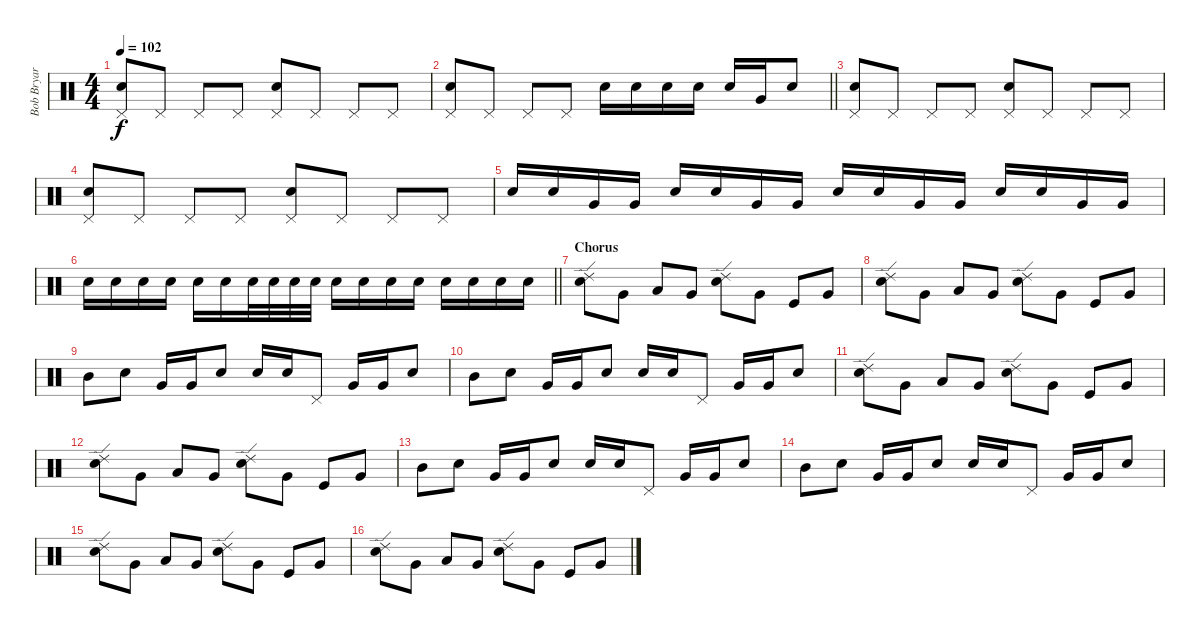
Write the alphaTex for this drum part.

\track ("Bob Bryar" "Bob Bryar") {instrument percussion}
\staff {score}
\articulation defaults
\ts (4 4)
\tempo 102
\clef neutral
\ks c
("Pedal Hi-Hat (hit)" "Electric Snare (hit)").8{dy f} "Pedal Hi-Hat (hit)".8 "Pedal Hi-Hat (hit)".8 "Pedal Hi-Hat (hit)".8 ("Pedal Hi-Hat (hit)" "Electric Snare (hit)").8 "Pedal Hi-Hat (hit)".8 "Pedal Hi-Hat (hit)".8 "Pedal Hi-Hat (hit)".8 |
\barLineRight lightlight
("Pedal Hi-Hat (hit)" "Electric Snare (hit)").8 "Pedal Hi-Hat (hit)".8 "Pedal Hi-Hat (hit)".8 "Pedal Hi-Hat (hit)".8 "Electric Snare (hit)".16 "Electric Snare (hit)".16 "Electric Snare (hit)".16 "Electric Snare (hit)".16 "Electric Snare (hit)".16 "Very Low Tom (hit)".16 "Electric Snare (hit)".8 |
("Pedal Hi-Hat (hit)" "Electric Snare (hit)").8 "Pedal Hi-Hat (hit)".8 "Pedal Hi-Hat (hit)".8 "Pedal Hi-Hat (hit)".8 ("Pedal Hi-Hat (hit)" "Electric Snare (hit)").8 "Pedal Hi-Hat (hit)".8 "Pedal Hi-Hat (hit)".8 "Pedal Hi-Hat (hit)".8 |
("Pedal Hi-Hat (hit)" "Electric Snare (hit)").8 "Pedal Hi-Hat (hit)".8 "Pedal Hi-Hat (hit)".8 "Pedal Hi-Hat (hit)".8 ("Pedal Hi-Hat (hit)" "Electric Snare (hit)").8 "Pedal Hi-Hat (hit)".8 "Pedal Hi-Hat (hit)".8 "Pedal Hi-Hat (hit)".8 |
"Electric Snare (hit)".16 "Electric Snare (hit)".16 "Very Low Tom (hit)".16 "Very Low Tom (hit)".16 "Electric Snare (hit)".16 "Electric Snare (hit)".16 "Very Low Tom (hit)".16 "Very Low Tom (hit)".16 "Electric Snare (hit)".16 "Electric Snare (hit)".16 "Very Low Tom (hit)".16 "Very Low Tom (hit)".16 "Electric Snare (hit)".16 "Electric Snare (hit)".16 "Very Low Tom (hit)".16 "Very Low Tom (hit)".16 |
\barLineRight lightlight "Electric Snare (hit)".16 "Electric Snare (hit)".16 "Electric Snare (hit)".16 "Electric Snare (hit)".16 "Electric Snare (hit)".16 "Electric Snare (hit)".16 "Electric Snare (hit)".32 "Electric Snare (hit)".32 "Electric Snare (hit)".32 "Electric Snare (hit)".32 "Electric Snare (hit)".16 "Electric Snare (hit)".16 "Electric Snare (hit)".16 "Electric Snare (hit)".16 "Electric Snare (hit)".16 "Electric Snare (hit)".16 "Electric Snare (hit)".16 "Electric Snare (hit)".16
|
\section ("" "Chorus")
("Ride (edge) 2" "Electric Snare (hit)").8 "Very Low Tom (hit)".8 "Low Tom (hit)".8 "Very Low Tom (hit)".8 ("Ride (edge) 2" "Electric Snare (hit)").8 "Very Low Tom (hit)".8 "Kick (hit)".8 "Very Low Tom (hit)".8 |
("Ride (edge) 2" "Electric Snare (hit)").8 "Very Low Tom (hit)".8 "Low Tom (hit)".8 "Very Low Tom (hit)".8 ("Ride (edge) 2" "Electric Snare (hit)").8 "Very Low Tom (hit)".8 "Kick (hit)".8 "Very Low Tom (hit)".8 |
"Mid Tom (hit)".8 "Electric Snare (hit)".8 "Very Low Tom (hit)".16 "Very Low Tom (hit)".16 "Electric Snare (hit)".8 "Electric Snare (hit)".16 "Electric Snare (hit)".16 "Pedal Hi-Hat (hit)".8 "Very Low Tom (hit)".16 "Very Low Tom (hit)".16 "Electric Snare (hit)".8 |
"Mid Tom (hit)".8 "Electric Snare (hit)".8 "Very Low Tom (hit)".16 "Very Low Tom (hit)".16 "Electric Snare (hit)".8 "Electric Snare (hit)".16 "Electric Snare (hit)".16 "Pedal Hi-Hat (hit)".8 "Very Low Tom (hit)".16 "Very Low Tom (hit)".16 "Electric Snare (hit)".8 |
("Ride (edge) 2" "Electric Snare (hit)").8 "Very Low Tom (hit)".8 "Low Tom (hit)".8 "Very Low Tom (hit)".8 ("Ride (edge) 2" "Electric Snare (hit)").8 "Very Low Tom (hit)".8 "Kick (hit)".8 "Very Low Tom (hit)".8 |
("Ride (edge) 2" "Electric Snare (hit)").8 "Very Low Tom (hit)".8 "Low Tom (hit)".8 "Very Low Tom (hit)".8 ("Ride (edge) 2" "Electric Snare (hit)").8 "Very Low Tom (hit)".8 "Kick (hit)".8 "Very Low Tom (hit)".8 |
"Mid Tom (hit)".8 "Electric Snare (hit)".8 "Very Low Tom (hit)".16 "Very Low Tom (hit)".16 "Electric Snare (hit)".8 "Electric Snare (hit)".16 "Electric Snare (hit)".16 "Pedal Hi-Hat (hit)".8 "Very Low Tom (hit)".16 "Very Low Tom (hit)".16 "Electric Snare (hit)".8 |
"Mid Tom (hit)".8 "Electric Snare (hit)".8 "Very Low Tom (hit)".16 "Very Low Tom (hit)".16 "Electric Snare (hit)".8 "Electric Snare (hit)".16 "Electric Snare (hit)".16 "Pedal Hi-Hat (hit)".8 "Very Low Tom (hit)".16 "Very Low Tom (hit)".16 "Electric Snare (hit)".8 |
("Ride (edge) 2" "Electric Snare (hit)").8 "Very Low Tom (hit)".8 "Low Tom (hit)".8 "Very Low Tom (hit)".8 ("Ride (edge) 2" "Electric Snare (hit)").8 "Very Low Tom (hit)".8 "Kick (hit)".8 "Very Low Tom (hit)".8 |
("Ride (edge) 2" "Electric Snare (hit)").8 "Very Low Tom (hit)".8 "Low Tom (hit)".8 "Very Low Tom (hit)".8 ("Ride (edge) 2" "Electric Snare (hit)").8 "Very Low Tom (hit)".8 "Kick (hit)".8 "Very Low Tom (hit)".8
